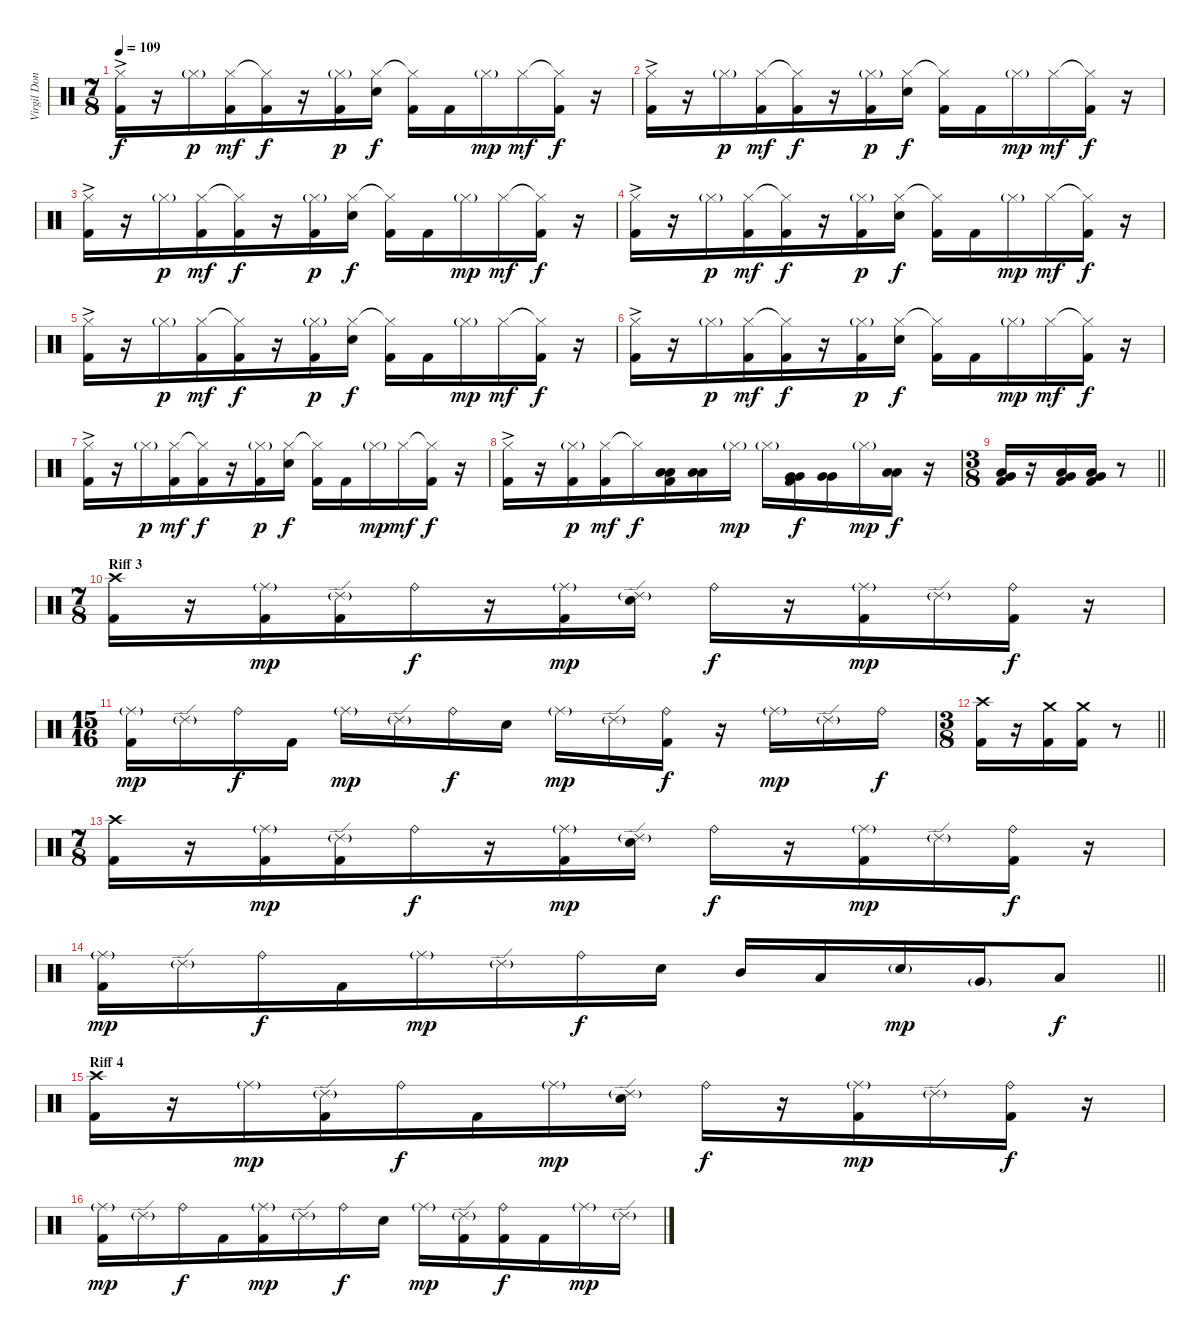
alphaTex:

\track ("Virgil Donati" "Virgil Don") {instrument percussion}
\staff {score}
\articulation defaults
\ts (7 8)
\tempo 109
\clef neutral
\ks c
("Hi-Hat (closed)"{ac} "Kick (hit) 2").16{dy f} r.16 "Hi-Hat (closed)"{g}.16{dy p} ("Hi-Hat (closed)" "Kick (hit) 2").16{dy mf} ("Hi-Hat (closed)"{t} "Kick (hit) 2").16{dy f} r.16 ("Hi-Hat (closed)"{g} "Kick (hit) 2").16{dy p} ("Hi-Hat (closed)" "Electric Snare (hit)").16{dy f} ("Hi-Hat (closed)"{t} "Kick (hit) 2").16 "Kick (hit) 2".16 "Hi-Hat (closed)"{g}.16{dy mp} "Hi-Hat (closed)".16{dy mf} ("Hi-Hat (closed)"{t} "Kick (hit) 2").16{dy f} r.16 |
("Hi-Hat (closed)"{ac} "Kick (hit) 2").16 r.16 "Hi-Hat (closed)"{g}.16{dy p} ("Hi-Hat (closed)" "Kick (hit) 2").16{dy mf} ("Hi-Hat (closed)"{t} "Kick (hit) 2").16{dy f} r.16 ("Hi-Hat (closed)"{g} "Kick (hit) 2").16{dy p} ("Hi-Hat (closed)" "Electric Snare (hit)").16{dy f} ("Hi-Hat (closed)"{t} "Kick (hit) 2").16 "Kick (hit) 2".16 "Hi-Hat (closed)"{g}.16{dy mp} "Hi-Hat (closed)".16{dy mf} ("Hi-Hat (closed)"{t} "Kick (hit) 2").16{dy f} r.16 |
("Hi-Hat (closed)"{ac} "Kick (hit) 2").16 r.16 "Hi-Hat (closed)"{g}.16{dy p} ("Hi-Hat (closed)" "Kick (hit) 2").16{dy mf} ("Hi-Hat (closed)"{t} "Kick (hit) 2").16{dy f} r.16 ("Hi-Hat (closed)"{g} "Kick (hit) 2").16{dy p} ("Hi-Hat (closed)" "Electric Snare (hit)").16{dy f} ("Hi-Hat (closed)"{t} "Kick (hit) 2").16 "Kick (hit) 2".16 "Hi-Hat (closed)"{g}.16{dy mp} "Hi-Hat (closed)".16{dy mf} ("Hi-Hat (closed)"{t} "Kick (hit) 2").16{dy f} r.16 |
("Hi-Hat (closed)"{ac} "Kick (hit) 2").16 r.16 "Hi-Hat (closed)"{g}.16{dy p} ("Hi-Hat (closed)" "Kick (hit) 2").16{dy mf} ("Hi-Hat (closed)"{t} "Kick (hit) 2").16{dy f} r.16 ("Hi-Hat (closed)"{g} "Kick (hit) 2").16{dy p} ("Hi-Hat (closed)" "Electric Snare (hit)").16{dy f} ("Hi-Hat (closed)"{t} "Kick (hit) 2").16 "Kick (hit) 2".16 "Hi-Hat (closed)"{g}.16{dy mp} "Hi-Hat (closed)".16{dy mf} ("Hi-Hat (closed)"{t} "Kick (hit) 2").16{dy f} r.16 |
("Hi-Hat (closed)"{ac} "Kick (hit) 2").16 r.16 "Hi-Hat (closed)"{g}.16{dy p} ("Hi-Hat (closed)" "Kick (hit) 2").16{dy mf} ("Hi-Hat (closed)"{t} "Kick (hit) 2").16{dy f} r.16 ("Hi-Hat (closed)"{g} "Kick (hit) 2").16{dy p} ("Hi-Hat (closed)" "Electric Snare (hit)").16{dy f} ("Hi-Hat (closed)"{t} "Kick (hit) 2").16 "Kick (hit) 2".16 "Hi-Hat (closed)"{g}.16{dy mp} "Hi-Hat (closed)".16{dy mf} ("Hi-Hat (closed)"{t} "Kick (hit) 2").16{dy f} r.16 |
("Hi-Hat (closed)"{ac} "Kick (hit) 2").16 r.16 "Hi-Hat (closed)"{g}.16{dy p} ("Hi-Hat (closed)" "Kick (hit) 2").16{dy mf} ("Hi-Hat (closed)"{t} "Kick (hit) 2").16{dy f} r.16 ("Hi-Hat (closed)"{g} "Kick (hit) 2").16{dy p} ("Hi-Hat (closed)" "Electric Snare (hit)").16{dy f} ("Hi-Hat (closed)"{t} "Kick (hit) 2").16 "Kick (hit) 2".16 "Hi-Hat (closed)"{g}.16{dy mp} "Hi-Hat (closed)".16{dy mf} ("Hi-Hat (closed)"{t} "Kick (hit) 2").16{dy f} r.16 |
("Hi-Hat (closed)"{ac} "Kick (hit) 2").16 r.16 "Hi-Hat (closed)"{g}.16{dy p} ("Hi-Hat (closed)" "Kick (hit) 2").16{dy mf} ("Hi-Hat (closed)"{t} "Kick (hit) 2").16{dy f} r.16 ("Hi-Hat (closed)"{g} "Kick (hit) 2").16{dy p} ("Hi-Hat (closed)" "Electric Snare (hit)").16{dy f} ("Hi-Hat (closed)"{t} "Kick (hit) 2").16 "Kick (hit) 2".16 "Hi-Hat (closed)"{g}.16{dy mp} "Hi-Hat (closed)".16{dy mf} ("Hi-Hat (closed)"{t} "Kick (hit) 2").16{dy f} r.16 |
("Hi-Hat (closed)"{ac} "Kick (hit) 2").16 r.16 ("Hi-Hat (closed)"{g} "Kick (hit) 2").16{dy p} ("Hi-Hat (closed)" "Kick (hit) 2").16{dy mf} "Hi-Hat (closed)"{t}.16{dy f} ("Low Tom (hit)" "Low Tom (hit)" "Kick (hit) 2").16 ("Low Tom (hit)" "Low Tom (hit)").16 "Hi-Hat (closed)"{g}.16{dy mp} "Hi-Hat (closed)"{g}.16 ("Very Low Tom (hit)" "Very Low Tom (hit)" "Kick (hit) 2").16{dy f} ("Very Low Tom (hit)" "Very Low Tom (hit)").16 "Hi-Hat (closed)"{g}.16{dy mp} ("Low Floor Tom (hit)" "Low Floor Tom (hit)").16{dy f} r.16 |
\ts (3 8)
\barLineRight lightlight
("Very Low Tom (hit)" "Low Floor Tom (hit)" "Kick (hit) 2").16 r.16 ("Very Low Tom (hit)" "Low Floor Tom (hit)" "Kick (hit) 2").16 ("Very Low Tom (hit)" "Low Floor Tom (hit)" "Kick (hit) 2").16 r.8 |
\ts (7 8)
\section ("" "Riff 3")
("Crash high (hit)" "Kick (hit) 2").16 r.16 ("Ride (middle)"{g} "Kick (hit) 2").16{dy mp} ("Ride (edge) 2"{g} "Kick (hit) 2").16 "Ride (bell)".16{dy f} r.16 ("Ride (middle)"{g} "Kick (hit) 2").16{dy mp} ("Ride (edge) 2"{g} "Electric Snare (hit)").16 "Ride (bell)".16{dy f} r.16 ("Ride (middle)"{g} "Kick (hit) 2").16{dy mp} "Ride (edge) 2"{g}.16 ("Ride (bell)" "Kick (hit) 2").16{dy f} r.16 |
\ts (15 16)
("Ride (middle)"{g} "Kick (hit) 2").16{dy mp} "Ride (edge) 2"{g}.16 "Ride (bell)".16{dy f} "Kick (hit) 2".16 "Ride (middle)"{g}.16{dy mp} "Ride (edge) 2"{g}.16 "Ride (bell)".16{dy f} "Electric Snare (hit)".16 "Ride (middle)"{g}.16{dy mp} "Ride (edge) 2"{g}.16 ("Ride (bell)" "Kick (hit) 2").16{dy f} r.16 "Ride (middle)"{g}.16{dy mp} "Ride (edge) 2"{g}.16 "Ride (bell)".16{dy f} |
\ts (3 8)
\barLineRight lightlight
("Crash high (hit)" "Kick (hit) 2").16 r.16 ("Crash medium (hit)" "Kick (hit) 2").16 ("Crash medium (hit)" "Kick (hit) 2").16 r.8 |
\ts (7 8)
("Crash high (hit)" "Kick (hit) 2").16 r.16 ("Ride (middle)"{g} "Kick (hit) 2").16{dy mp} ("Ride (edge) 2"{g} "Kick (hit) 2").16 "Ride (bell)".16{dy f} r.16 ("Ride (middle)"{g} "Kick (hit) 2").16{dy mp} ("Ride (edge) 2"{g} "Electric Snare (hit)").16 "Ride (bell)".16{dy f} r.16 ("Ride (middle)"{g} "Kick (hit) 2").16{dy mp} "Ride (edge) 2"{g}.16 ("Ride (bell)" "Kick (hit) 2").16{dy f} r.16 |
\barLineRight lightlight
("Ride (middle)"{g} "Kick (hit) 2").16{dy mp} "Ride (edge) 2"{g}.16 "Ride (bell)".16{dy f} "Kick (hit) 2".16 "Ride (middle)"{g}.16{dy mp} "Ride (edge) 2"{g}.16 "Ride (bell)".16{dy f} "Electric Snare (hit)".16 "Mid Tom (hit)".16 "Low Tom (hit)".16 "Electric Snare (hit)"{g}.16{dy mp} "Very Low Tom (hit)"{g}.16 "Low Floor Tom (hit)".8{dy f} |
\section ("" "Riff 4")
("Crash high (hit)" "Kick (hit) 2").16 r.16 "Ride (middle)"{g}.16{dy mp} ("Ride (edge) 2"{g} "Kick (hit) 2").16 "Ride (bell)".16{dy f} "Kick (hit) 2".16 "Ride (middle)"{g}.16{dy mp} ("Ride (edge) 2"{g} "Electric Snare (hit)").16 "Ride (bell)".16{dy f} r.16 ("Ride (middle)"{g} "Kick (hit) 2").16{dy mp} "Ride (edge) 2"{g}.16 ("Ride (bell)" "Kick (hit) 2").16{dy f} r.16 |
("Ride (middle)"{g} "Kick (hit) 2").16{dy mp} "Ride (edge) 2"{g}.16 "Ride (bell)".16{dy f} "Kick (hit) 2".16 ("Ride (middle)"{g} "Kick (hit) 2").16{dy mp} "Ride (edge) 2"{g}.16 "Ride (bell)".16{dy f} "Electric Snare (hit)".16 "Ride (middle)"{g}.16{dy mp} ("Ride (edge) 2"{g} "Kick (hit) 2").16 ("Ride (bell)" "Kick (hit) 2").16{dy f} "Kick (hit) 2".16 "Ride (middle)"{g}.16{dy mp} "Ride (edge) 2"{g}.16
